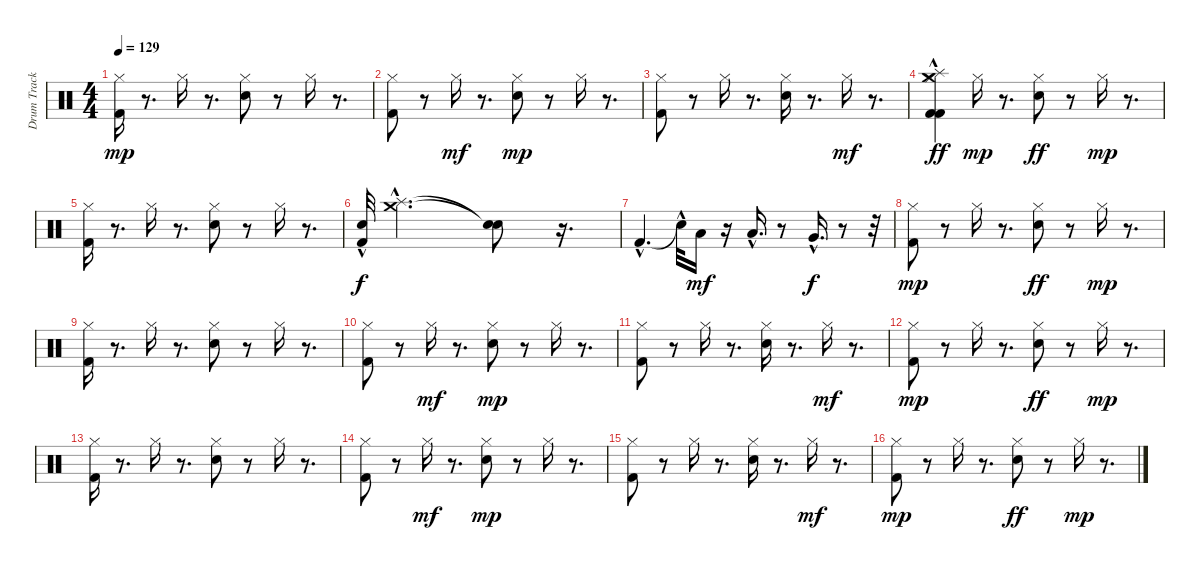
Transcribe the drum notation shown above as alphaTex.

\track ("Drum Track 1" "Drum Track") {instrument percussion}
\staff {score}
\articulation defaults
\ts (4 4)
\tempo 129
\clef neutral
\ks c
("Kick (hit) 2" "Hi-Hat (closed)").16{dy mp} r.8{d} "Hi-Hat (closed)".16 r.8{d} ("Snare (hit) 2" "Hi-Hat (closed)").8 r.8 "Hi-Hat (closed)".16 r.8{d} |
("Kick (hit) 2" "Hi-Hat (closed)").8 r.8 "Hi-Hat (closed)".16{dy mf} r.8{d} ("Hi-Hat (closed)" "Snare (hit) 2").8{dy mp} r.8 "Hi-Hat (closed)".16 r.8{d} |
("Hi-Hat (closed)" "Kick (hit) 2").8 r.8 "Hi-Hat (closed)".16 r.8{d} ("Hi-Hat (closed)" "Snare (hit) 2").16 r.8{d} "Hi-Hat (closed)".16{dy mf} r.8{d} |
("Kick (hit) 2" "Hi-Hat (closed)" "Crash medium (hit)"{hac} "Splash (hit)"{hac} "Kick (hit) 2"{hac}).4{dy ff} "Hi-Hat (closed)".16{dy mp} r.8{d} ("Hi-Hat (closed)" "Snare (hit) 2").8{dy ff} r.8 "Hi-Hat (closed)".16{dy mp} r.8{d} |
("Kick (hit) 2" "Hi-Hat (closed)").16 r.8{d} "Hi-Hat (closed)".16 r.8{d} ("Snare (hit) 2" "Hi-Hat (closed)").8 r.8 "Hi-Hat (closed)".16 r.8{d} |
("Kick (hit) 2"{hac} "Snare (hit) 2").32{dy f} ("Splash (hit)"{hac} "Crash medium (hit)"{hac}).2{d} ("Snare (hit)"{t} "Snare (hit)"{t}).8 r.16{d} |
"Kick (hit) 2"{hac}.4{d} "Snare (hit)"{hac t}.32 "Low Tom (hit)".16{dy mf} r.16 "Low Tom (hit)"{hac}.16{d} r.8 "Very Low Tom (hit)"{hac}.16{d dy f} r.8 r.32 |
("Kick (hit) 2" "Hi-Hat (closed)").8{dy mp} r.8 "Hi-Hat (closed)".16 r.8{d} ("Hi-Hat (closed)" "Snare (hit) 2").8{dy ff} r.8 "Hi-Hat (closed)".16{dy mp} r.8{d} |
("Kick (hit) 2" "Hi-Hat (closed)").16 r.8{d} "Hi-Hat (closed)".16 r.8{d} ("Snare (hit) 2" "Hi-Hat (closed)").8 r.8 "Hi-Hat (closed)".16 r.8{d} |
("Kick (hit) 2" "Hi-Hat (closed)").8 r.8 "Hi-Hat (closed)".16{dy mf} r.8{d} ("Hi-Hat (closed)" "Snare (hit) 2").8{dy mp} r.8 "Hi-Hat (closed)".16 r.8{d} |
("Hi-Hat (closed)" "Kick (hit) 2").8 r.8 "Hi-Hat (closed)".16 r.8{d} ("Hi-Hat (closed)" "Snare (hit) 2").16 r.8{d} "Hi-Hat (closed)".16{dy mf} r.8{d} |
("Kick (hit) 2" "Hi-Hat (closed)").8{dy mp} r.8 "Hi-Hat (closed)".16 r.8{d} ("Hi-Hat (closed)" "Snare (hit) 2").8{dy ff} r.8 "Hi-Hat (closed)".16{dy mp} r.8{d} |
("Kick (hit) 2" "Hi-Hat (closed)").16 r.8{d} "Hi-Hat (closed)".16 r.8{d} ("Snare (hit) 2" "Hi-Hat (closed)").8 r.8 "Hi-Hat (closed)".16 r.8{d} |
("Kick (hit) 2" "Hi-Hat (closed)").8 r.8 "Hi-Hat (closed)".16{dy mf} r.8{d} ("Hi-Hat (closed)" "Snare (hit) 2").8{dy mp} r.8 "Hi-Hat (closed)".16 r.8{d} |
("Hi-Hat (closed)" "Kick (hit) 2").8 r.8 "Hi-Hat (closed)".16 r.8{d} ("Hi-Hat (closed)" "Snare (hit) 2").16 r.8{d} "Hi-Hat (closed)".16{dy mf} r.8{d} |
("Kick (hit) 2" "Hi-Hat (closed)").8{dy mp} r.8 "Hi-Hat (closed)".16 r.8{d} ("Hi-Hat (closed)" "Snare (hit) 2").8{dy ff} r.8 "Hi-Hat (closed)".16{dy mp} r.8{d}
